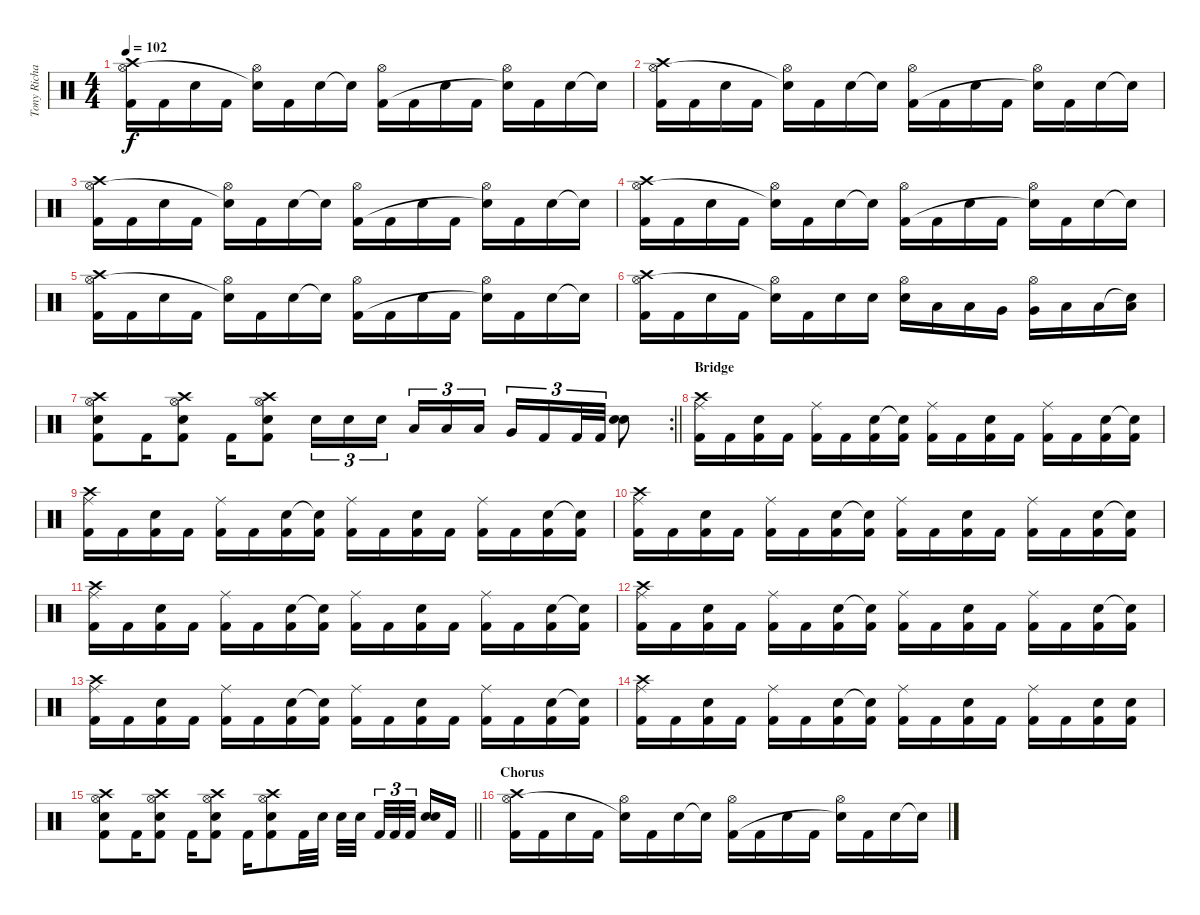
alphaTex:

\track ("Tony Richards (drums)" "Tony Richa") {instrument percussion}
\staff {score}
\articulation defaults
\ts (4 4)
\tempo 102
\clef neutral
\ks c
("Crash high (hit)" "Hi-Hat (open)" "Kick (hit) 2").16{dy f} "Kick (hit) 2".16 "Snare (hit) 2".16 "Kick (hit) 2".16 ("Hi-Hat (open)" "Snare (hit)"{t}).16 "Kick (hit) 2".16 "Snare (hit) 2".16 "Snare (hit)"{t}.16 ("Hi-Hat (open)" "Kick (hit) 2").16 "Kick (hit) 2".16 "Snare (hit) 2".16 "Kick (hit) 2".16 ("Hi-Hat (open)" "Snare (hit)"{t}).16 "Kick (hit) 2".16 "Snare (hit) 2".16 "Snare (hit)"{t}.16 |
("Crash high (hit)" "Hi-Hat (open)" "Kick (hit) 2").16 "Kick (hit) 2".16 "Snare (hit) 2".16 "Kick (hit) 2".16 ("Hi-Hat (open)" "Snare (hit)"{t}).16 "Kick (hit) 2".16 "Snare (hit) 2".16 "Snare (hit)"{t}.16 ("Hi-Hat (open)" "Kick (hit) 2").16 "Kick (hit) 2".16 "Snare (hit) 2".16 "Kick (hit) 2".16 ("Hi-Hat (open)" "Snare (hit)"{t}).16 "Kick (hit) 2".16 "Snare (hit) 2".16 "Snare (hit)"{t}.16 |
("Crash high (hit)" "Hi-Hat (open)" "Kick (hit) 2").16 "Kick (hit) 2".16 "Snare (hit) 2".16 "Kick (hit) 2".16 ("Hi-Hat (open)" "Snare (hit)"{t}).16 "Kick (hit) 2".16 "Snare (hit) 2".16 "Snare (hit)"{t}.16 ("Hi-Hat (open)" "Kick (hit) 2").16 "Kick (hit) 2".16 "Snare (hit) 2".16 "Kick (hit) 2".16 ("Hi-Hat (open)" "Snare (hit)"{t}).16 "Kick (hit) 2".16 "Snare (hit) 2".16 "Snare (hit)"{t}.16 |
("Crash high (hit)" "Hi-Hat (open)" "Kick (hit) 2").16 "Kick (hit) 2".16 "Snare (hit) 2".16 "Kick (hit) 2".16 ("Hi-Hat (open)" "Snare (hit)"{t}).16 "Kick (hit) 2".16 "Snare (hit) 2".16 "Snare (hit)"{t}.16 ("Hi-Hat (open)" "Kick (hit) 2").16 "Kick (hit) 2".16 "Snare (hit) 2".16 "Kick (hit) 2".16 ("Hi-Hat (open)" "Snare (hit)"{t}).16 "Kick (hit) 2".16 "Snare (hit) 2".16 "Snare (hit)"{t}.16 |
("Crash high (hit)" "Hi-Hat (open)" "Kick (hit) 2").16 "Kick (hit) 2".16 "Snare (hit) 2".16 "Kick (hit) 2".16 ("Hi-Hat (open)" "Snare (hit)"{t}).16 "Kick (hit) 2".16 "Snare (hit) 2".16 "Snare (hit)"{t}.16 ("Hi-Hat (open)" "Kick (hit) 2").16 "Kick (hit) 2".16 "Snare (hit) 2".16 "Kick (hit) 2".16 ("Hi-Hat (open)" "Snare (hit)"{t}).16 "Kick (hit) 2".16 "Snare (hit) 2".16 "Snare (hit)"{t}.16 |
("Crash high (hit)" "Hi-Hat (open)" "Kick (hit) 2").16 "Kick (hit) 2".16 "Snare (hit) 2".16 "Kick (hit) 2".16 ("Hi-Hat (open)" "Snare (hit)"{t}).16 "Kick (hit) 2".16 "Snare (hit) 2".16 "Snare (hit) 2".16 ("Hi-Hat (open)" "Snare (hit) 2").16 "Low Tom (hit)".16 "Low Tom (hit)".16 "Very Low Tom (hit)".16 ("Hi-Hat (open)" "Very Low Tom (hit)").16 "Low Floor Tom (hit)".16 "Low Floor Tom (hit)".16 ("Snare (hit)"{t} "Low Floor Tom (hit)").16 |
\rc 2
\barLineRight lightlight
("Crash high (hit)" "Hi-Hat (open)" "Snare (hit) 2" "Kick (hit) 2").8 "Kick (hit) 2".16 ("Crash high (hit)" "Hi-Hat (open)" "Snare (hit) 2" "Kick (hit) 2").8 "Kick (hit) 2".16 ("Crash high (hit)" "Hi-Hat (open)" "Snare (hit) 2" "Kick (hit) 2").8 "Snare (hit) 2".16{tu (3 2)} "Snare (hit) 2".16{tu (3 2)} "Snare (hit) 2".16{tu (3 2) beam splitsecondary} "Low Tom (hit)".16{tu (3 2)} "Low Tom (hit)".16{tu (3 2)} "Low Tom (hit)".16{tu (3 2)} "Very Low Tom (hit)".16{tu (3 2)} "Kick (hit) 2".16{tu (3 2)} "Kick (hit) 2".32{tu (3 2)} "Kick (hit) 2".32{tu (3 2)} ("Snare (hit) 2" "Snare (hit) 2").8 |
\section ("" "Bridge")
("Crash high (hit)" "Ride (middle)" "Kick (hit) 2").16 "Kick (hit) 2".16 ("Snare (hit) 2" "Kick (hit) 2").16 "Kick (hit) 2".16 ("Ride (middle)" "Kick (hit) 2").16 "Kick (hit) 2".16 ("Snare (hit) 2" "Kick (hit) 2").16 ("Snare (hit)"{t} "Kick (hit) 2").16 ("Ride (middle)" "Kick (hit) 2").16 "Kick (hit) 2".16 ("Snare (hit) 2" "Kick (hit) 2").16 "Kick (hit) 2".16 ("Ride (middle)" "Kick (hit) 2").16 "Kick (hit) 2".16 ("Snare (hit) 2" "Kick (hit) 2").16 ("Snare (hit)"{t} "Kick (hit) 2").16 |
("Crash high (hit)" "Ride (middle)" "Kick (hit) 2").16 "Kick (hit) 2".16 ("Snare (hit) 2" "Kick (hit) 2").16 "Kick (hit) 2".16 ("Ride (middle)" "Kick (hit) 2").16 "Kick (hit) 2".16 ("Snare (hit) 2" "Kick (hit) 2").16 ("Snare (hit)"{t} "Kick (hit) 2").16 ("Ride (middle)" "Kick (hit) 2").16 "Kick (hit) 2".16 ("Snare (hit) 2" "Kick (hit) 2").16 "Kick (hit) 2".16 ("Ride (middle)" "Kick (hit) 2").16 "Kick (hit) 2".16 ("Snare (hit) 2" "Kick (hit) 2").16 ("Snare (hit)"{t} "Kick (hit) 2").16 |
("Crash high (hit)" "Ride (middle)" "Kick (hit) 2").16 "Kick (hit) 2".16 ("Snare (hit) 2" "Kick (hit) 2").16 "Kick (hit) 2".16 ("Ride (middle)" "Kick (hit) 2").16 "Kick (hit) 2".16 ("Snare (hit) 2" "Kick (hit) 2").16 ("Snare (hit)"{t} "Kick (hit) 2").16 ("Ride (middle)" "Kick (hit) 2").16 "Kick (hit) 2".16 ("Snare (hit) 2" "Kick (hit) 2").16 "Kick (hit) 2".16 ("Ride (middle)" "Kick (hit) 2").16 "Kick (hit) 2".16 ("Snare (hit) 2" "Kick (hit) 2").16 ("Snare (hit)"{t} "Kick (hit) 2").16 |
("Crash high (hit)" "Ride (middle)" "Kick (hit) 2").16 "Kick (hit) 2".16 ("Snare (hit) 2" "Kick (hit) 2").16 "Kick (hit) 2".16 ("Ride (middle)" "Kick (hit) 2").16 "Kick (hit) 2".16 ("Snare (hit) 2" "Kick (hit) 2").16 ("Snare (hit)"{t} "Kick (hit) 2").16 ("Ride (middle)" "Kick (hit) 2").16 "Kick (hit) 2".16 ("Snare (hit) 2" "Kick (hit) 2").16 "Kick (hit) 2".16 ("Ride (middle)" "Kick (hit) 2").16 "Kick (hit) 2".16 ("Snare (hit) 2" "Kick (hit) 2").16 ("Snare (hit)"{t} "Kick (hit) 2").16 |
("Crash high (hit)" "Ride (middle)" "Kick (hit) 2").16 "Kick (hit) 2".16 ("Snare (hit) 2" "Kick (hit) 2").16 "Kick (hit) 2".16 ("Ride (middle)" "Kick (hit) 2").16 "Kick (hit) 2".16 ("Snare (hit) 2" "Kick (hit) 2").16 ("Snare (hit)"{t} "Kick (hit) 2").16 ("Ride (middle)" "Kick (hit) 2").16 "Kick (hit) 2".16 ("Snare (hit) 2" "Kick (hit) 2").16 "Kick (hit) 2".16 ("Ride (middle)" "Kick (hit) 2").16 "Kick (hit) 2".16 ("Snare (hit) 2" "Kick (hit) 2").16 ("Snare (hit)"{t} "Kick (hit) 2").16 |
("Crash high (hit)" "Ride (middle)" "Kick (hit) 2").16 "Kick (hit) 2".16 ("Snare (hit) 2" "Kick (hit) 2").16 "Kick (hit) 2".16 ("Ride (middle)" "Kick (hit) 2").16 "Kick (hit) 2".16 ("Snare (hit) 2" "Kick (hit) 2").16 ("Snare (hit)"{t} "Kick (hit) 2").16 ("Ride (middle)" "Kick (hit) 2").16 "Kick (hit) 2".16 ("Snare (hit) 2" "Kick (hit) 2").16 "Kick (hit) 2".16 ("Ride (middle)" "Kick (hit) 2").16 "Kick (hit) 2".16 ("Snare (hit) 2" "Kick (hit) 2").16 ("Snare (hit)"{t} "Kick (hit) 2").16 |
("Crash high (hit)" "Ride (middle)" "Kick (hit) 2").16 "Kick (hit) 2".16 ("Snare (hit) 2" "Kick (hit) 2").16 "Kick (hit) 2".16 ("Ride (middle)" "Kick (hit) 2").16 "Kick (hit) 2".16 ("Snare (hit) 2" "Kick (hit) 2").16 ("Snare (hit)"{t} "Kick (hit) 2").16 ("Ride (middle)" "Kick (hit) 2").16 "Kick (hit) 2".16 ("Snare (hit) 2" "Kick (hit) 2").16 "Kick (hit) 2".16 ("Ride (middle)" "Kick (hit) 2").16 "Kick (hit) 2".16 ("Snare (hit) 2" "Kick (hit) 2").16 ("Snare (hit) 2" "Kick (hit) 2").16 |
\barLineRight lightlight
("Crash high (hit)" "Hi-Hat (open)" "Snare (hit) 2" "Kick (hit) 2").8 "Kick (hit) 2".16 ("Crash high (hit)" "Hi-Hat (open)" "Snare (hit) 2" "Kick (hit) 2").8 "Kick (hit) 2".16 ("Crash high (hit)" "Hi-Hat (open)" "Snare (hit) 2" "Kick (hit) 2").8 "Kick (hit) 2".16 ("Crash high (hit)" "Hi-Hat (open)" "Snare (hit) 2" "Kick (hit) 2").8 "Kick (hit) 2".32 "Snare (hit) 2".32 "Snare (hit) 2".32 "Snare (hit) 2".32{beam splitsecondary} "Kick (hit) 2".32{tu (3 2)} "Kick (hit) 2".32{tu (3 2)} "Kick (hit) 2".32{tu (3 2) beam splitsecondary} ("Snare (hit) 2" "Snare (hit) 2").16 "Kick (hit) 2".16 |
\section ("" "Chorus")
("Crash high (hit)" "Hi-Hat (open)" "Kick (hit) 2").16 "Kick (hit) 2".16 "Snare (hit) 2".16 "Kick (hit) 2".16 ("Hi-Hat (open)" "Snare (hit)"{t}).16 "Kick (hit) 2".16 "Snare (hit) 2".16 "Snare (hit)"{t}.16 ("Hi-Hat (open)" "Kick (hit) 2").16 "Kick (hit) 2".16 "Snare (hit) 2".16 "Kick (hit) 2".16 ("Hi-Hat (open)" "Snare (hit)"{t}).16 "Kick (hit) 2".16 "Snare (hit) 2".16 "Snare (hit)"{t}.16
